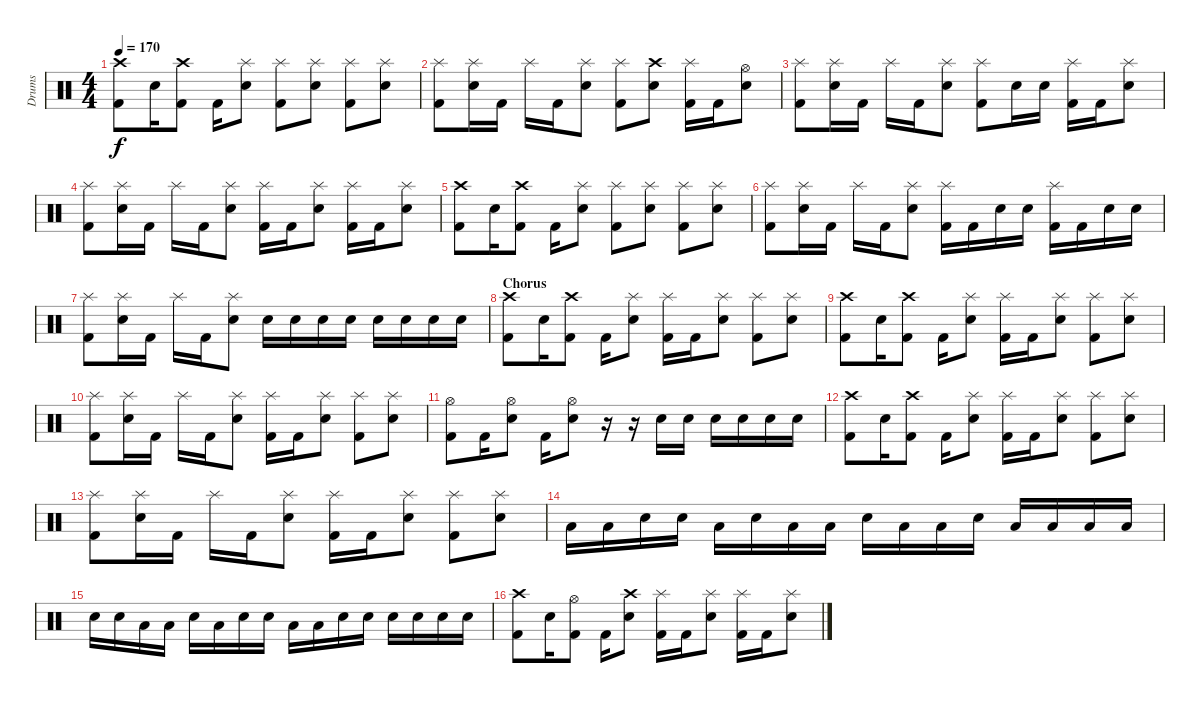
\track ("Drums" "Drums") {instrument percussion}
\staff {score}
\articulation defaults
\ts (4 4)
\tempo 170
\clef neutral
\ks c
("Crash high (hit)" "Kick (hit) 2").8{dy f} "Electric Snare (hit)".16 ("Crash high (hit)" "Kick (hit) 2").8 "Kick (hit) 2".16 ("Splash (hit)" "Electric Snare (hit)").8 ("Splash (hit)" "Kick (hit) 2").8 ("Splash (hit)" "Electric Snare (hit)").8 ("Splash (hit)" "Kick (hit) 2").8 ("Splash (hit)" "Electric Snare (hit)").8 |
("Splash (hit)" "Kick (hit) 2").8 ("Splash (hit)" "Electric Snare (hit)").16 "Kick (hit) 2".16 "Splash (hit)".16 "Kick (hit) 2".16 ("Splash (hit)" "Electric Snare (hit)").8 ("Splash (hit)" "Kick (hit) 2").8 ("Crash high (hit)" "Electric Snare (hit)").8 ("Splash (hit)" "Kick (hit) 2").16 "Kick (hit) 2".16 ("Hi-Hat (open)" "Electric Snare (hit)").8 |
("Splash (hit)" "Kick (hit) 2").8 ("Splash (hit)" "Electric Snare (hit)").16 "Kick (hit) 2".16 "Splash (hit)".16 "Kick (hit) 2".16 ("Splash (hit)" "Electric Snare (hit)").8 ("Splash (hit)" "Kick (hit) 2").8 "Electric Snare (hit)".16 "Electric Snare (hit)".16 ("Splash (hit)" "Kick (hit) 2").16 "Kick (hit) 2".16 ("Splash (hit)" "Electric Snare (hit)").8 |
("Splash (hit)" "Kick (hit) 2").8 ("Splash (hit)" "Electric Snare (hit)").16 "Kick (hit) 2".16 "Splash (hit)".16 "Kick (hit) 2".16 ("Splash (hit)" "Electric Snare (hit)").8 ("Splash (hit)" "Kick (hit) 2").16 "Kick (hit) 2".16 ("Splash (hit)" "Electric Snare (hit)").8 ("Splash (hit)" "Kick (hit) 2").16 "Kick (hit) 2".16 ("Splash (hit)" "Electric Snare (hit)").8 |
("Crash high (hit)" "Kick (hit) 2").8 "Electric Snare (hit)".16 ("Crash high (hit)" "Kick (hit) 2").8 "Kick (hit) 2".16 ("Splash (hit)" "Electric Snare (hit)").8 ("Splash (hit)" "Kick (hit) 2").8 ("Splash (hit)" "Electric Snare (hit)").8 ("Splash (hit)" "Kick (hit) 2").8 ("Splash (hit)" "Electric Snare (hit)").8 |
("Splash (hit)" "Kick (hit) 2").8 ("Splash (hit)" "Electric Snare (hit)").16 "Kick (hit) 2".16 "Splash (hit)".16 "Kick (hit) 2".16 ("Splash (hit)" "Electric Snare (hit)").8 ("Splash (hit)" "Kick (hit) 2").16 "Kick (hit) 2".16 "Electric Snare (hit)".16 "Electric Snare (hit)".16 ("Splash (hit)" "Kick (hit) 2").16 "Kick (hit) 2".16 "Electric Snare (hit)".16 "Electric Snare (hit)".16 |
("Splash (hit)" "Kick (hit) 2").8 ("Splash (hit)" "Electric Snare (hit)").16 "Kick (hit) 2".16 "Splash (hit)".16 "Kick (hit) 2".16 ("Splash (hit)" "Electric Snare (hit)").8 "Electric Snare (hit)".16 "Electric Snare (hit)".16 "Electric Snare (hit)".16 "Electric Snare (hit)".16 "Electric Snare (hit)".16 "Electric Snare (hit)".16 "Electric Snare (hit)".16 "Electric Snare (hit)".16 |
\section ("" "Chorus")
("Crash high (hit)" "Kick (hit) 2").8 "Electric Snare (hit)".16 ("Crash high (hit)" "Kick (hit) 2").8 "Kick (hit) 2".16 ("Splash (hit)" "Electric Snare (hit)").8 ("Splash (hit)" "Kick (hit) 2").16 "Kick (hit) 2".16 ("Splash (hit)" "Electric Snare (hit)").8 ("Splash (hit)" "Kick (hit) 2").8 ("Splash (hit)" "Electric Snare (hit)").8 |
("Crash high (hit)" "Kick (hit) 2").8 "Electric Snare (hit)".16 ("Crash high (hit)" "Kick (hit) 2").8 "Kick (hit) 2".16 ("Splash (hit)" "Electric Snare (hit)").8 ("Splash (hit)" "Kick (hit) 2").16 "Kick (hit) 2".16 ("Splash (hit)" "Electric Snare (hit)").8 ("Splash (hit)" "Kick (hit) 2").8 ("Splash (hit)" "Electric Snare (hit)").8 |
("Splash (hit)" "Kick (hit) 2").8 ("Splash (hit)" "Electric Snare (hit)").16 "Kick (hit) 2".16 "Splash (hit)".16 "Kick (hit) 2".16 ("Splash (hit)" "Electric Snare (hit)").8 ("Splash (hit)" "Kick (hit) 2").16 "Kick (hit) 2".16 ("Splash (hit)" "Electric Snare (hit)").8 ("Splash (hit)" "Kick (hit) 2").8 ("Splash (hit)" "Electric Snare (hit)").8 |
("Hi-Hat (open)" "Kick (hit) 2").8 "Kick (hit) 2".16 ("Hi-Hat (open)" "Electric Snare (hit)").8 "Kick (hit) 2".16 ("Hi-Hat (open)" "Electric Snare (hit)").8 r.16 r.16 "Electric Snare (hit)".16 "Electric Snare (hit)".16 "Electric Snare (hit)".16 "Electric Snare (hit)".16 "Electric Snare (hit)".16 "Electric Snare (hit)".16 |
("Crash high (hit)" "Kick (hit) 2").8 "Electric Snare (hit)".16 ("Crash high (hit)" "Kick (hit) 2").8 "Kick (hit) 2".16 ("Splash (hit)" "Electric Snare (hit)").8 ("Splash (hit)" "Kick (hit) 2").16 "Kick (hit) 2".16 ("Splash (hit)" "Electric Snare (hit)").8 ("Splash (hit)" "Kick (hit) 2").8 ("Splash (hit)" "Electric Snare (hit)").8 |
("Splash (hit)" "Kick (hit) 2").8 ("Splash (hit)" "Electric Snare (hit)").16 "Kick (hit) 2".16 "Splash (hit)".16 "Kick (hit) 2".16 ("Splash (hit)" "Electric Snare (hit)").8 ("Splash (hit)" "Kick (hit) 2").16 "Kick (hit) 2".16 ("Splash (hit)" "Electric Snare (hit)").8 ("Splash (hit)" "Kick (hit) 2").8 ("Splash (hit)" "Electric Snare (hit)").8 |
"Low Tom (hit)".16 "Low Tom (hit)".16 "Electric Snare (hit)".16 "Electric Snare (hit)".16 "Low Tom (hit)".16 "Electric Snare (hit)".16 "Low Tom (hit)".16 "Low Tom (hit)".16 "Electric Snare (hit)".16 "Low Tom (hit)".16 "Low Tom (hit)".16 "Electric Snare (hit)".16 "Low Tom (hit)".16 "Low Tom (hit)".16 "Low Tom (hit)".16 "Low Tom (hit)".16 |
"Electric Snare (hit)".16 "Electric Snare (hit)".16 "Low Tom (hit)".16 "Low Tom (hit)".16 "Electric Snare (hit)".16 "Low Tom (hit)".16 "Electric Snare (hit)".16 "Electric Snare (hit)".16 "Low Tom (hit)".16 "Low Tom (hit)".16 "Electric Snare (hit)".16 "Electric Snare (hit)".16 "Electric Snare (hit)".16 "Electric Snare (hit)".16 "Electric Snare (hit)".16 "Electric Snare (hit)".16 |
("Crash high (hit)" "Kick (hit) 2").8 "Electric Snare (hit)".16 ("Hi-Hat (open)" "Kick (hit) 2").8 "Kick (hit) 2".16 ("Crash high (hit)" "Electric Snare (hit)").8 ("Splash (hit)" "Kick (hit) 2").16 "Kick (hit) 2".16 ("Splash (hit)" "Electric Snare (hit)").8 ("Splash (hit)" "Kick (hit) 2").16 "Kick (hit) 2".16 ("Splash (hit)" "Electric Snare (hit)").8
